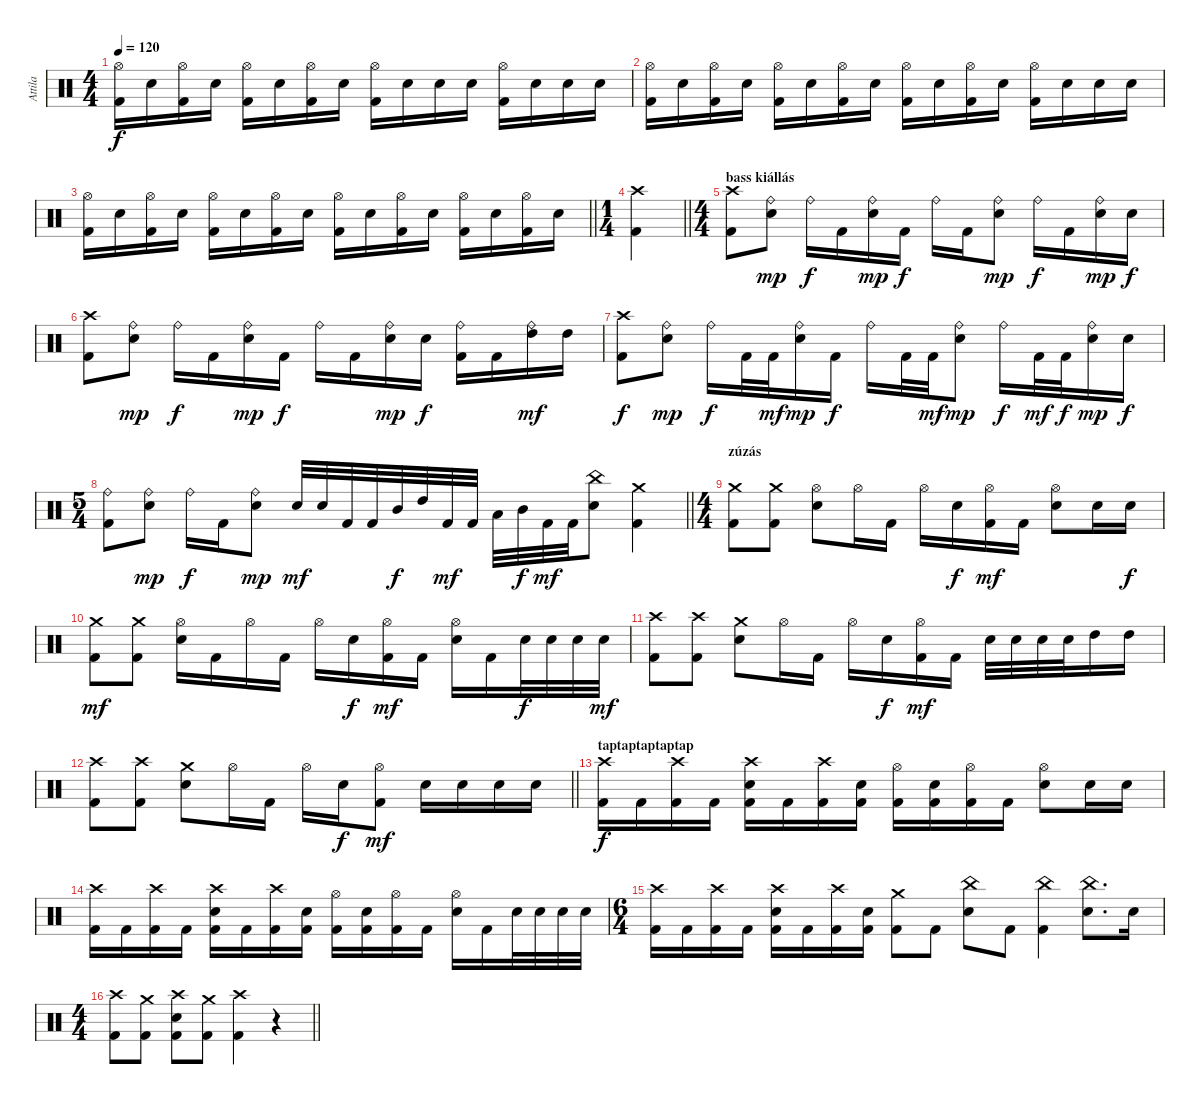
\track ("Attila" "Attila") {instrument percussion}
\staff {score}
\articulation defaults
\ts (4 4)
\tempo 120
\clef neutral
\ks c
("Hi-Hat (open)" "Kick (hit) 2").16{dy f} "Electric Snare (hit)".16 ("Hi-Hat (open)" "Kick (hit) 2").16 "Electric Snare (hit)".16 ("Hi-Hat (open)" "Kick (hit) 2").16 "Electric Snare (hit)".16 ("Hi-Hat (open)" "Kick (hit) 2").16 "Electric Snare (hit)".16 ("Hi-Hat (open)" "Kick (hit) 2").16 "Electric Snare (hit)".16 "Electric Snare (hit)".16 "Electric Snare (hit)".16 ("Hi-Hat (open)" "Kick (hit) 2").16 "Electric Snare (hit)".16 "Electric Snare (hit)".16 "Electric Snare (hit)".16 |
("Hi-Hat (open)" "Kick (hit) 2").16 "Electric Snare (hit)".16 ("Hi-Hat (open)" "Kick (hit) 2").16 "Electric Snare (hit)".16 ("Hi-Hat (open)" "Kick (hit) 2").16 "Electric Snare (hit)".16 ("Hi-Hat (open)" "Kick (hit) 2").16 "Electric Snare (hit)".16 ("Hi-Hat (open)" "Kick (hit) 2").16 "Electric Snare (hit)".16 ("Hi-Hat (open)" "Kick (hit) 2").16 "Electric Snare (hit)".16 ("Hi-Hat (open)" "Kick (hit) 2").16 "Electric Snare (hit)".16 "Electric Snare (hit)".16 "Electric Snare (hit)".16 |
\barLineRight lightlight
("Hi-Hat (open)" "Kick (hit) 2").16 "Electric Snare (hit)".16 ("Hi-Hat (open)" "Kick (hit) 2").16 "Electric Snare (hit)".16 ("Hi-Hat (open)" "Kick (hit) 2").16 "Electric Snare (hit)".16 ("Hi-Hat (open)" "Kick (hit) 2").16 "Electric Snare (hit)".16 ("Hi-Hat (open)" "Kick (hit) 2").16 "Electric Snare (hit)".16 ("Hi-Hat (open)" "Kick (hit) 2").16 "Electric Snare (hit)".16 ("Hi-Hat (open)" "Kick (hit) 2").16 "Electric Snare (hit)".16 ("Hi-Hat (open)" "Kick (hit) 2").16 "Electric Snare (hit)".16 |
\ts (1 4)
\barLineRight lightlight
("Crash high (hit)" "Kick (hit) 2").4 |
\ts (4 4)
\section ("" "bass kiállás")
("Crash high (hit)" "Kick (hit) 2").8 ("Ride (bell)" "Electric Snare (hit)").8{dy mp} "Ride (bell)".16{dy f} "Kick (hit) 2".16 ("Ride (bell)" "Electric Snare (hit)").16{dy mp} "Kick (hit) 2".16{dy f} "Ride (bell)".16 "Kick (hit) 2".16 ("Ride (bell)" "Electric Snare (hit)").8{dy mp} "Ride (bell)".16{dy f} "Kick (hit) 2".16 ("Ride (bell)" "Electric Snare (hit)").16{dy mp} "Electric Snare (hit)".16{dy f} |
("Crash high (hit)" "Kick (hit) 2").8 ("Ride (bell)" "Electric Snare (hit)").8{dy mp} "Ride (bell)".16{dy f} "Kick (hit) 2".16 ("Ride (bell)" "Electric Snare (hit)").16{dy mp} "Kick (hit) 2".16{dy f} "Ride (bell)".16 "Kick (hit) 2".16 ("Ride (bell)" "Electric Snare (hit)").16{dy mp} "Electric Snare (hit)".16{dy f} ("Ride (bell)" "Kick (hit) 2").16 "Kick (hit) 2".16 ("Ride (bell)" "High Tom (hit)").16{dy mf} "High Tom (hit)".16 |
("Crash high (hit)" "Kick (hit) 2").8{dy f} ("Ride (bell)" "Electric Snare (hit)").8{dy mp} "Ride (bell)".16{dy f} "Kick (hit) 2".32 "Kick (hit) 2".32{dy mf} ("Ride (bell)" "Electric Snare (hit)").16{dy mp} "Kick (hit) 2".16{dy f} "Ride (bell)".16 "Kick (hit) 2".32 "Kick (hit) 2".32{dy mf} ("Ride (bell)" "Electric Snare (hit)").8{dy mp} "Ride (bell)".16{dy f} "Kick (hit) 2".32{dy mf} "Kick (hit) 2".32{dy f} ("Ride (bell)" "Electric Snare (hit)").16{dy mp} "Electric Snare (hit)".16{dy f} |
\ts (5 4)
\barLineRight lightlight
("Ride (bell)" "Kick (hit) 2").8 ("Ride (bell)" "Electric Snare (hit)").8{dy mp} "Ride (bell)".16{dy f} "Kick (hit) 2".16 ("Ride (bell)" "Electric Snare (hit)").8{dy mp} "Electric Snare (hit)".32{dy mf} "Electric Snare (hit)".32 "Kick (hit) 2".32 "Kick (hit) 2".32 "Mid Tom (hit)".32{dy f} "High Tom (hit)".32 "Kick (hit) 2".32{dy mf} "Kick (hit) 2".32 "Low Tom (hit)".32 "Mid Tom (hit)".32{dy f} "Kick (hit) 2".32{dy mf} "Kick (hit) 2".32 ("China (hit)" "Electric Snare (hit)").8 ("Crash medium (hit)" "Kick (hit) 2").4 |
\ts (4 4)
\section ("" "zúzás")
("Crash medium (hit)" "Kick (hit) 2").8 ("Crash medium (hit)" "Kick (hit) 2").8 ("Hi-Hat (open)" "Electric Snare (hit)").8 "Hi-Hat (open)".16 "Kick (hit) 2".16 "Hi-Hat (open)".16 "Electric Snare (hit)".16{dy f} ("Hi-Hat (open)" "Kick (hit) 2").16{dy mf} "Kick (hit) 2".16 ("Hi-Hat (open)" "Electric Snare (hit)").8 "Electric Snare (hit)".16 "Electric Snare (hit)".16{dy f} |
("Crash medium (hit)" "Kick (hit) 2").8{dy mf} ("Crash medium (hit)" "Kick (hit) 2").8 ("Hi-Hat (open)" "Electric Snare (hit)").16 "Kick (hit) 2".16 "Hi-Hat (open)".16 "Kick (hit) 2".16 "Hi-Hat (open)".16 "Electric Snare (hit)".16{dy f} ("Hi-Hat (open)" "Kick (hit) 2").16{dy mf} "Kick (hit) 2".16 ("Hi-Hat (open)" "Electric Snare (hit)").16 "Kick (hit) 2".16 "Electric Snare (hit)".32{dy f} "Electric Snare (hit)".32 "Electric Snare (hit)".32 "Electric Snare (hit)".32{dy mf} |
("Crash high (hit)" "Kick (hit) 2").8 ("Crash high (hit)" "Kick (hit) 2").8 ("Crash medium (hit)" "Electric Snare (hit)").8 "Hi-Hat (open)".16 "Kick (hit) 2".16 "Hi-Hat (open)".16 "Electric Snare (hit)".16{dy f} ("Hi-Hat (open)" "Kick (hit) 2").16{dy mf} "Kick (hit) 2".16 "Electric Snare (hit)".32 "Electric Snare (hit)".32 "Electric Snare (hit)".32 "Electric Snare (hit)".32 "High Tom (hit)".16 "High Tom (hit)".16 |
\barLineRight lightlight
("Crash high (hit)" "Kick (hit) 2").8 ("Crash high (hit)" "Kick (hit) 2").8 ("Crash medium (hit)" "Electric Snare (hit)").8 "Hi-Hat (open)".16 "Kick (hit) 2".16 "Hi-Hat (open)".16 "Electric Snare (hit)".16{dy f} ("Hi-Hat (open)" "Kick (hit) 2").8{dy mf} "Electric Snare (hit)".16 "Electric Snare (hit)".16 "Electric Snare (hit)".16 "Electric Snare (hit)".16 |
\section ("" "taptaptaptaptap")
("Crash high (hit)" "Kick (hit) 2").16{dy f} "Kick (hit) 2".16 ("Crash high (hit)" "Kick (hit) 2").16 "Kick (hit) 2".16 ("Crash high (hit)" "Electric Snare (hit)" "Kick (hit) 2").16 "Kick (hit) 2".16 ("Crash high (hit)" "Kick (hit) 2").16 ("Electric Snare (hit)" "Kick (hit) 2").16 ("Hi-Hat (open)" "Kick (hit) 2").16 ("Electric Snare (hit)" "Kick (hit) 2").16 ("Hi-Hat (open)" "Kick (hit) 2").16 "Kick (hit) 2".16 ("Hi-Hat (open)" "Electric Snare (hit)").8 "Electric Snare (hit)".16 "Electric Snare (hit)".16 |
("Crash high (hit)" "Kick (hit) 2").16 "Kick (hit) 2".16 ("Crash high (hit)" "Kick (hit) 2").16 "Kick (hit) 2".16 ("Crash high (hit)" "Electric Snare (hit)" "Kick (hit) 2").16 "Kick (hit) 2".16 ("Crash high (hit)" "Kick (hit) 2").16 ("Electric Snare (hit)" "Kick (hit) 2").16 ("Hi-Hat (open)" "Kick (hit) 2").16 ("Electric Snare (hit)" "Kick (hit) 2").16 ("Hi-Hat (open)" "Kick (hit) 2").16 "Kick (hit) 2".16 ("Hi-Hat (open)" "Electric Snare (hit)").16 "Kick (hit) 2".16 "Electric Snare (hit)".32 "Electric Snare (hit)".32 "Electric Snare (hit)".32 "Electric Snare (hit)".32 |
\ts (6 4)
("Crash high (hit)" "Kick (hit) 2").16 "Kick (hit) 2".16 ("Crash high (hit)" "Kick (hit) 2").16 "Kick (hit) 2".16 ("Crash high (hit)" "Electric Snare (hit)" "Kick (hit) 2").16 "Kick (hit) 2".16 ("Crash high (hit)" "Kick (hit) 2").16 ("Electric Snare (hit)" "Kick (hit) 2").16 ("Crash medium (hit)" "Kick (hit) 2").8 "Kick (hit) 2".8 ("China (hit)" "Electric Snare (hit)").8 "Kick (hit) 2".8 ("China (hit)" "Kick (hit) 2").4 ("China (hit)" "Electric Snare (hit)").8{d} "Electric Snare (hit)".16 |
\ts (4 4)
\barLineRight lightlight
("Crash high (hit)" "Kick (hit) 2").8 ("Crash medium (hit)" "Kick (hit) 2").8 ("Crash high (hit)" "Electric Snare (hit)" "Kick (hit) 2").8 ("Crash medium (hit)" "Kick (hit) 2").8 ("Crash high (hit)" "Kick (hit) 2").4 r.4
